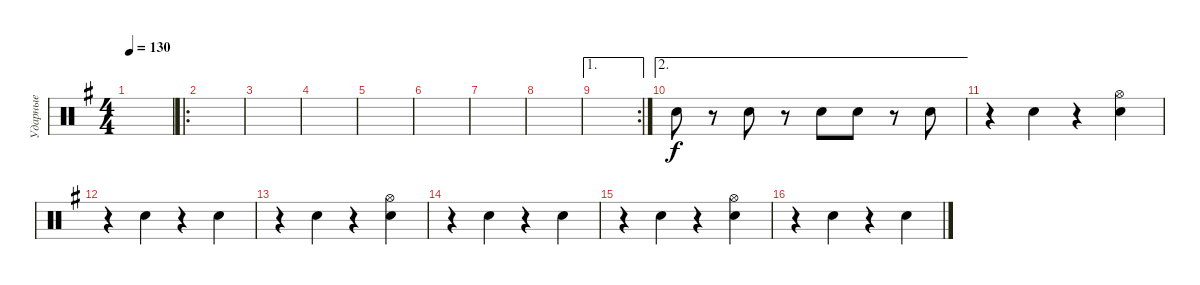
\track ("Ударные" "Ударные") {instrument percussion}
\staff {score}
\articulation defaults
\ts (4 4)
\tempo 130
\clef neutral
\ks g
|
\ro
|
|
|
|
|
|
|
\ae 1
\rc 2
|
\ae 2 "Electric Snare (hit)".8
r.8 "Electric Snare (hit)".8 r.8 "Electric Snare (hit)".8 "Electric Snare (hit)".8 r.8 "Electric Snare (hit)".8 |
r.4 "Electric Snare (hit)".4 r.4 ("Electric Snare (hit)" "Hi-Hat (open)").4 |
r.4 "Electric Snare (hit)".4 r.4 "Electric Snare (hit)".4 |
r.4 "Electric Snare (hit)".4 r.4 ("Electric Snare (hit)" "Hi-Hat (open)").4 |
r.4 "Electric Snare (hit)".4 r.4 "Electric Snare (hit)".4 |
r.4 "Electric Snare (hit)".4 r.4 ("Electric Snare (hit)" "Hi-Hat (open)").4 |
r.4 "Electric Snare (hit)".4 r.4 "Electric Snare (hit)".4
